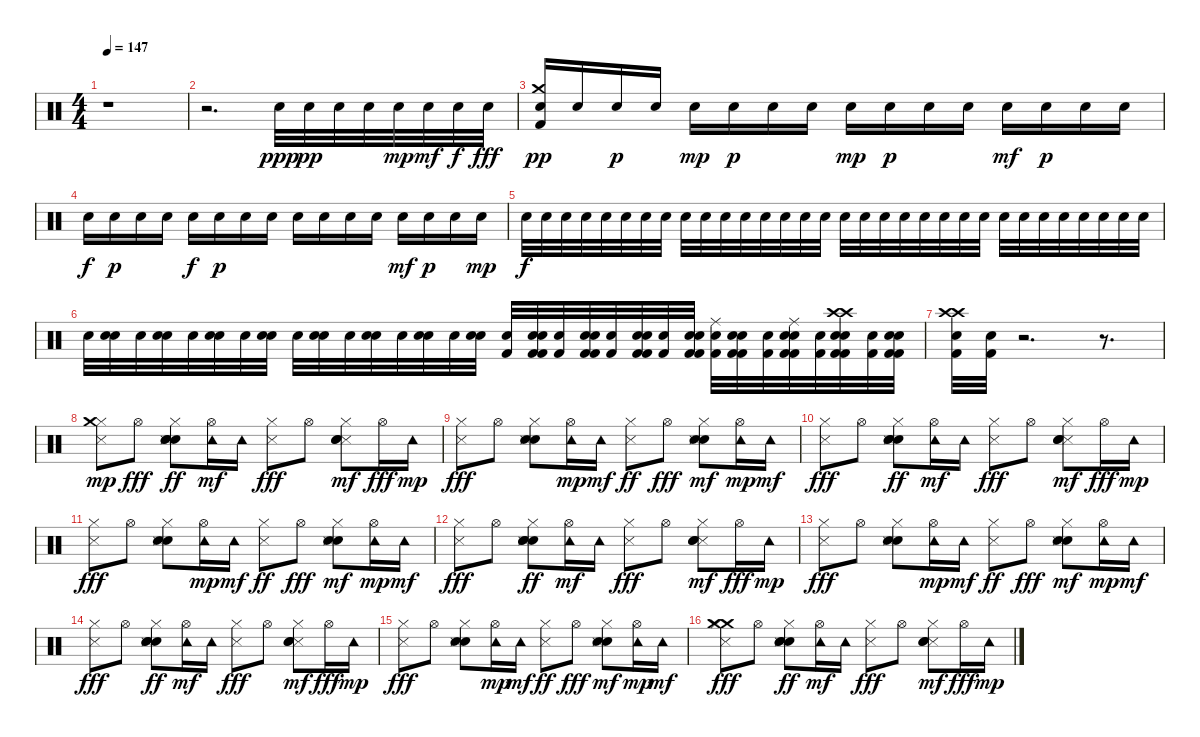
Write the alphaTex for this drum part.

\track "" {instrument percussion}
\staff {score}
\articulation defaults
\ts (4 4)
\tempo 147
\clef neutral
\ks c
r.1{dy mf} |
r.2{d} "Electric Snare (hit)".32{dy ppp} "Electric Snare (hit)".32{dy pp} "Electric Snare (hit)".32 "Electric Snare (hit)".32 "Electric Snare (hit)".32{dy mp} "Electric Snare (hit)".32{dy mf} "Electric Snare (hit)".32{dy f} "Electric Snare (hit)".32{dy fff} |
("Crash medium (hit)" "Kick (hit) 2" "Electric Snare (hit)").16{dy pp} "Electric Snare (hit)".16 "Electric Snare (hit)".16{dy p} "Electric Snare (hit)".16 "Electric Snare (hit)".16{dy mp} "Electric Snare (hit)".16{dy p} "Electric Snare (hit)".16 "Electric Snare (hit)".16 "Electric Snare (hit)".16{dy mp} "Electric Snare (hit)".16{dy p} "Electric Snare (hit)".16 "Electric Snare (hit)".16 "Electric Snare (hit)".16{dy mf} "Electric Snare (hit)".16{dy p} "Electric Snare (hit)".16 "Electric Snare (hit)".16 |
"Electric Snare (hit)".16{dy f} "Electric Snare (hit)".16{dy p} "Electric Snare (hit)".16 "Electric Snare (hit)".16 "Electric Snare (hit)".16{dy f} "Electric Snare (hit)".16{dy p} "Electric Snare (hit)".16 "Electric Snare (hit)".16 "Electric Snare (hit)".16 "Electric Snare (hit)".16 "Electric Snare (hit)".16 "Electric Snare (hit)".16 "Electric Snare (hit)".16{dy mf} "Electric Snare (hit)".16{dy p} "Electric Snare (hit)".16 "Electric Snare (hit)".16{dy mp} |
"Electric Snare (hit)".32{dy f} "Electric Snare (hit)".32 "Electric Snare (hit)".32 "Electric Snare (hit)".32 "Electric Snare (hit)".32 "Electric Snare (hit)".32 "Electric Snare (hit)".32 "Electric Snare (hit)".32 "Electric Snare (hit)".32 "Electric Snare (hit)".32 "Electric Snare (hit)".32 "Electric Snare (hit)".32 "Electric Snare (hit)".32 "Electric Snare (hit)".32 "Electric Snare (hit)".32{volume 11} "Electric Snare (hit)".32{volume 12} "Electric Snare (hit)".32{volume 13} "Electric Snare (hit)".32{volume 13} "Electric Snare (hit)".32{volume 14} "Electric Snare (hit)".32 "Electric Snare (hit)".32 "Electric Snare (hit)".32 "Electric Snare (hit)".32 "Electric Snare (hit)".32 "Electric Snare (hit)".32 "Electric Snare (hit)".32{volume 15} "Electric Snare (hit)".32 "Electric Snare (hit)".32 "Electric Snare (hit)".32{volume 15} "Electric Snare (hit)".32 "Electric Snare (hit)".32 "Electric Snare (hit)".32 |
"Electric Snare (hit)".32 ("Electric Snare (hit)" "Electric Snare (hit)").32 "Electric Snare (hit)".32 ("Electric Snare (hit)" "Electric Snare (hit)").32 "Electric Snare (hit)".32 ("Electric Snare (hit)" "Electric Snare (hit)").32 "Electric Snare (hit)".32 ("Electric Snare (hit)" "Electric Snare (hit)").32 "Electric Snare (hit)".32 ("Electric Snare (hit)" "Electric Snare (hit)").32 "Electric Snare (hit)".32 ("Electric Snare (hit)" "Electric Snare (hit)").32 "Electric Snare (hit)".32 ("Electric Snare (hit)" "Electric Snare (hit)").32 "Electric Snare (hit)".32 ("Electric Snare (hit)" "Electric Snare (hit)").32 ("Electric Snare (hit)" "Kick (hit) 2").32 ("Electric Snare (hit)" "Kick (hit) 2" "Electric Snare (hit)" "Kick (hit) 2").32 ("Electric Snare (hit)" "Kick (hit) 2").32 ("Kick (hit) 2" "Electric Snare (hit)" "Kick (hit) 2" "Electric Snare (hit)").32 ("Kick (hit) 2" "Electric Snare (hit)").32 ("Kick (hit) 2" "Electric Snare (hit)" "Electric Snare (hit)" "Kick (hit) 2").32 ("Electric Snare (hit)" "Kick (hit) 2").32 ("Electric Snare (hit)" "Kick (hit) 2" "Electric Snare (hit)" "Kick (hit) 2").32 ("Ride (middle)" "Kick (hit) 2" "Electric Snare (hit)").32 ("Kick (hit) 2" "Electric Snare (hit)" "Kick (hit) 2" "Electric Snare (hit)").32 ("Kick (hit) 2" "Electric Snare (hit)").32 ("Ride (middle)" "Kick (hit) 2" "Electric Snare (hit)" "Kick (hit) 2" "Electric Snare (hit)").32 ("Kick (hit) 2" "Electric Snare (hit)").32 ("Crash high (hit)" "Kick (hit) 2" "Electric Snare (hit)" "Crash high (hit)" "Kick (hit) 2" "Electric Snare (hit)").32 ("Kick (hit) 2" "Electric Snare (hit)").32 ("Kick (hit) 2" "Electric Snare (hit)" "Kick (hit) 2" "Electric Snare (hit)").32 |
("Crash high (hit)" "Kick (hit) 2" "Electric Snare (hit)" "Crash high (hit)").32 ("Kick (hit) 2" "Electric Snare (hit)").32 r.2{d} r.8{d} |
("Hi-Hat (closed)" "Metronome (hit)" "Crash medium (hit)").8{dy mp} "Hi-Hat (open)".8{dy fff} ("Hand Clap (hit)" "Metronome (hit)" "Hi-Hat (closed)" "Snare (hit) 2" "Snare (hit) 2").8{dy ff} ("Hi-Hat (open)" "Tambourine (hit)").16{dy mf} "Tambourine (hit)".16 ("Hi-Hat (closed)" "Metronome (hit)").8{dy fff} "Hi-Hat (open)".8 ("Metronome (hit)" "Hand Clap (hit)" "Hi-Hat (closed)" "Snare (hit) 2").8{dy mf} "Hi-Hat (open)".16{dy fff} "Tambourine (hit)".16{dy mp} |
("Metronome (hit)" "Hi-Hat (closed)").8{dy fff} "Hi-Hat (open)".8 ("Hand Clap (hit)" "Metronome (hit)" "Hi-Hat (closed)" "Snare (hit) 2").8 ("Hi-Hat (open)" "Tambourine (hit)").16{dy mp} "Tambourine (hit)".16{dy mf} ("Metronome (hit)" "Hi-Hat (closed)").8{dy ff} "Hi-Hat (open)".8{dy fff} ("Hand Clap (hit)" "Metronome (hit)" "Hi-Hat (closed)" "Snare (hit) 2").8{dy mf} ("Hi-Hat (open)" "Tambourine (hit)").16{dy mp} "Tambourine (hit)".16{dy mf} |
("Hi-Hat (closed)" "Metronome (hit)").8{dy fff} "Hi-Hat (open)".8 ("Hand Clap (hit)" "Metronome (hit)" "Hi-Hat (closed)" "Snare (hit) 2" "Snare (hit) 2").8{dy ff} ("Hi-Hat (open)" "Tambourine (hit)").16{dy mf} "Tambourine (hit)".16 ("Hi-Hat (closed)" "Metronome (hit)").8{dy fff} "Hi-Hat (open)".8 ("Metronome (hit)" "Hand Clap (hit)" "Hi-Hat (closed)" "Snare (hit) 2").8{dy mf} "Hi-Hat (open)".16{dy fff} "Tambourine (hit)".16{dy mp} |
("Metronome (hit)" "Hi-Hat (closed)").8{dy fff} "Hi-Hat (open)".8 ("Hand Clap (hit)" "Metronome (hit)" "Hi-Hat (closed)" "Snare (hit) 2").8 ("Hi-Hat (open)" "Tambourine (hit)").16{dy mp} "Tambourine (hit)".16{dy mf} ("Metronome (hit)" "Hi-Hat (closed)").8{dy ff} "Hi-Hat (open)".8{dy fff} ("Hand Clap (hit)" "Metronome (hit)" "Hi-Hat (closed)" "Snare (hit) 2").8{dy mf} ("Hi-Hat (open)" "Tambourine (hit)").16{dy mp} "Tambourine (hit)".16{dy mf} |
("Hi-Hat (closed)" "Metronome (hit)").8{dy fff} "Hi-Hat (open)".8 ("Hand Clap (hit)" "Metronome (hit)" "Hi-Hat (closed)" "Snare (hit) 2" "Snare (hit) 2").8{dy ff} ("Hi-Hat (open)" "Tambourine (hit)").16{dy mf} "Tambourine (hit)".16 ("Hi-Hat (closed)" "Metronome (hit)").8{dy fff} "Hi-Hat (open)".8 ("Metronome (hit)" "Hand Clap (hit)" "Hi-Hat (closed)" "Snare (hit) 2").8{dy mf} "Hi-Hat (open)".16{dy fff} "Tambourine (hit)".16{dy mp} |
("Metronome (hit)" "Hi-Hat (closed)").8{dy fff} "Hi-Hat (open)".8 ("Hand Clap (hit)" "Metronome (hit)" "Hi-Hat (closed)" "Snare (hit) 2").8 ("Hi-Hat (open)" "Tambourine (hit)").16{dy mp} "Tambourine (hit)".16{dy mf} ("Metronome (hit)" "Hi-Hat (closed)").8{dy ff} "Hi-Hat (open)".8{dy fff} ("Hand Clap (hit)" "Metronome (hit)" "Hi-Hat (closed)" "Snare (hit) 2").8{dy mf} ("Hi-Hat (open)" "Tambourine (hit)").16{dy mp} "Tambourine (hit)".16{dy mf} |
("Hi-Hat (closed)" "Metronome (hit)").8{dy fff} "Hi-Hat (open)".8 ("Hand Clap (hit)" "Metronome (hit)" "Hi-Hat (closed)" "Snare (hit) 2" "Snare (hit) 2").8{dy ff} ("Hi-Hat (open)" "Tambourine (hit)").16{dy mf} "Tambourine (hit)".16 ("Hi-Hat (closed)" "Metronome (hit)").8{dy fff} "Hi-Hat (open)".8 ("Metronome (hit)" "Hand Clap (hit)" "Hi-Hat (closed)" "Snare (hit) 2").8{dy mf} "Hi-Hat (open)".16{dy fff} "Tambourine (hit)".16{dy mp} |
("Metronome (hit)" "Hi-Hat (closed)").8{dy fff} "Hi-Hat (open)".8 ("Hand Clap (hit)" "Metronome (hit)" "Hi-Hat (closed)" "Snare (hit) 2").8 ("Hi-Hat (open)" "Tambourine (hit)").16{dy mp} "Tambourine (hit)".16{dy mf} ("Metronome (hit)" "Hi-Hat (closed)").8{dy ff} "Hi-Hat (open)".8{dy fff} ("Hand Clap (hit)" "Metronome (hit)" "Hi-Hat (closed)" "Snare (hit) 2").8{dy mf} ("Hi-Hat (open)" "Tambourine (hit)").16{dy mp} "Tambourine (hit)".16{dy mf} |
("Crash medium (hit)" "Crash medium (hit)" "Hi-Hat (closed)" "Metronome (hit)").8{dy fff} "Hi-Hat (open)".8 ("Hand Clap (hit)" "Metronome (hit)" "Hi-Hat (closed)" "Snare (hit) 2" "Snare (hit) 2").8{dy ff} ("Hi-Hat (open)" "Tambourine (hit)").16{dy mf} "Tambourine (hit)".16 ("Hi-Hat (closed)" "Metronome (hit)").8{dy fff} "Hi-Hat (open)".8 ("Metronome (hit)" "Hand Clap (hit)" "Hi-Hat (closed)" "Snare (hit) 2").8{dy mf} "Hi-Hat (open)".16{dy fff} "Tambourine (hit)".16{dy mp}
